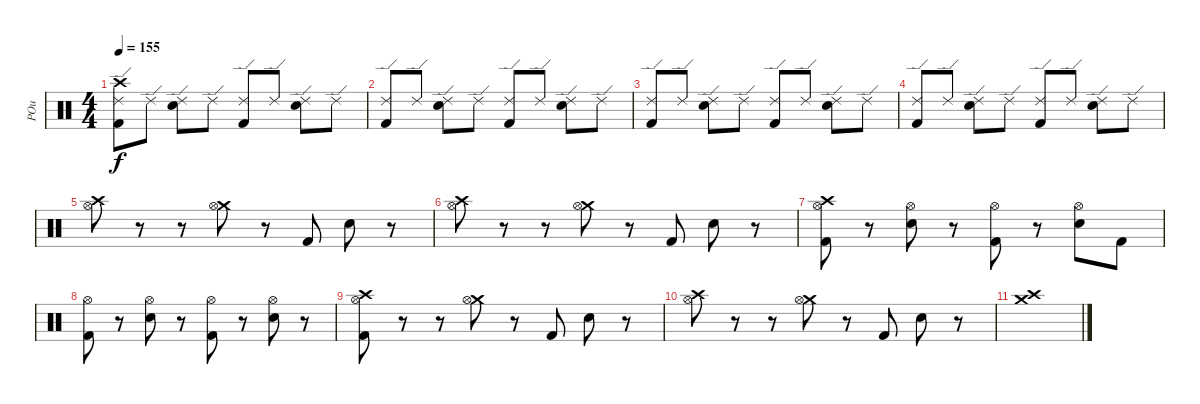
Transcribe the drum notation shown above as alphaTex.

\track ("POu" "POu") {instrument percussion}
\staff {score}
\articulation defaults
\ts (4 4)
\tempo 155
\clef neutral
\ks c
("Crash high (hit)" "Kick (hit) 2" "Ride (edge) 2").8{dy f} "Ride (edge) 2".8 ("Electric Snare (hit)" "Ride (edge) 2").8 "Ride (edge) 2".8 ("Kick (hit) 2" "Ride (edge) 2").8 "Ride (edge) 2".8 ("Electric Snare (hit)" "Ride (edge) 2").8 "Ride (edge) 2".8 |
("Kick (hit) 2" "Ride (edge) 2").8 "Ride (edge) 2".8 ("Electric Snare (hit)" "Ride (edge) 2").8 "Ride (edge) 2".8 ("Kick (hit) 2" "Ride (edge) 2").8 "Ride (edge) 2".8 ("Electric Snare (hit)" "Ride (edge) 2").8 "Ride (edge) 2".8 |
("Kick (hit) 2" "Ride (edge) 2").8 "Ride (edge) 2".8 ("Electric Snare (hit)" "Ride (edge) 2").8 "Ride (edge) 2".8 ("Kick (hit) 2" "Ride (edge) 2").8 "Ride (edge) 2".8 ("Electric Snare (hit)" "Ride (edge) 2").8 "Ride (edge) 2".8 |
("Kick (hit) 2" "Ride (edge) 2").8 "Ride (edge) 2".8 ("Electric Snare (hit)" "Ride (edge) 2").8 "Ride (edge) 2".8 ("Kick (hit) 2" "Ride (edge) 2").8 "Ride (edge) 2".8 ("Electric Snare (hit)" "Ride (edge) 2").8 "Ride (edge) 2".8 |
("Crash high (hit)" "Hi-Hat (open)").8 r.8 r.8 ("Crash medium (hit)" "Hi-Hat (open)").8 r.8 "Kick (hit) 2".8 "Electric Snare (hit)".8 r.8 |
("Crash high (hit)" "Hi-Hat (open)").8 r.8 r.8 ("Crash medium (hit)" "Hi-Hat (open)").8 r.8 "Kick (hit) 2".8 "Electric Snare (hit)".8 r.8 |
("Crash high (hit)" "Kick (hit) 2" "Hi-Hat (open)").8 r.8 ("Electric Snare (hit)" "Hi-Hat (open)").8 r.8 ("Kick (hit) 2" "Hi-Hat (open)").8 r.8 ("Electric Snare (hit)" "Hi-Hat (open)").8 "Kick (hit) 2".8 |
("Kick (hit) 2" "Hi-Hat (open)").8 r.8 ("Electric Snare (hit)" "Hi-Hat (open)").8 r.8 ("Kick (hit) 2" "Hi-Hat (open)").8 r.8 ("Electric Snare (hit)" "Hi-Hat (open)").8 r.8 |
("Crash high (hit)" "Kick (hit) 2" "Hi-Hat (open)").8 r.8 r.8 ("Crash medium (hit)" "Hi-Hat (open)").8 r.8 "Kick (hit) 2".8 "Electric Snare (hit)".8 r.8 |
("Crash high (hit)" "Hi-Hat (open)").8 r.8 r.8 ("Crash medium (hit)" "Hi-Hat (open)").8 r.8 "Kick (hit) 2".8 "Electric Snare (hit)".8 r.8 |
("Crash high (hit)" "Crash medium (hit)").1
